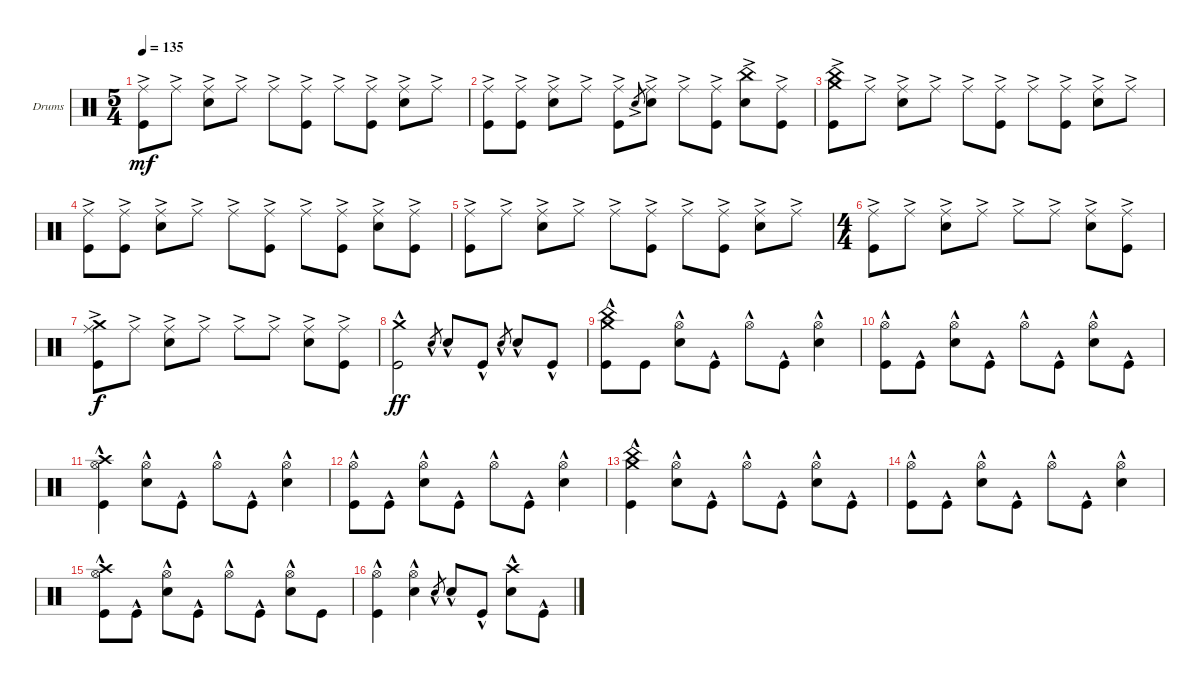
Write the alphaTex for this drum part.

\defaultSystemsLayout 4
\bracketExtendMode groupsimilarinstruments
\firstSystemTrackNameOrientation horizontal
\otherSystemsTrackNameOrientation horizontal
\track ("Drumkit" "Drums") {instrument percussion}
\staff {score}
\articulation defaults
\ts (5 4)
\tempo 135
\clef neutral
\ks c
("Kick (hit)"{ac} "Ride (middle)"{ac}).8{dy mf} "Ride (middle)"{ac}.8 ("Ride (middle)"{ac} "Snare (hit) 2"{ac}).8 "Ride (middle)"{ac}.8 "Ride (middle)"{ac}.8 ("Ride (middle)"{ac} "Kick (hit)"{ac}).8 "Ride (middle)"{ac}.8 ("Ride (middle)"{ac} "Kick (hit)"{ac}).8 ("Ride (middle)"{ac} "Snare (hit) 2"{ac}).8 "Ride (middle)"{ac}.8 |
("Kick (hit)"{ac} "Ride (middle)"{ac}).8 ("Ride (middle)"{ac} "Kick (hit)"{ac}).8 ("Ride (middle)"{ac} "Snare (hit) 2"{ac}).8 "Ride (middle)"{ac}.8 ("Ride (middle)"{ac} "Kick (hit)"{ac}).8 "Snare (hit) 2"{ac}.8{gr} ("Snare (hit) 2"{ac} "Ride (middle)"{ac}).8 "Ride (middle)"{ac}.8 ("Ride (middle)"{ac} "Kick (hit)"{ac}).8 ("Snare (hit) 2"{ac} "China (hit)"{ac}).8 ("Ride (middle)"{ac} "Kick (hit)"{ac}).8 |
("Kick (hit)"{ac} "Crash medium (hit)"{ac} "China (hit)"{ac}).8 "Ride (middle)"{ac}.8 ("Ride (middle)"{ac} "Snare (hit) 2"{ac}).8 "Ride (middle)"{ac}.8 "Ride (middle)"{ac}.8 ("Ride (middle)"{ac} "Kick (hit)"{ac}).8 "Ride (middle)"{ac}.8 ("Ride (middle)"{ac} "Kick (hit)"{ac}).8 ("Ride (middle)"{ac} "Snare (hit) 2"{ac}).8 "Ride (middle)"{ac}.8 |
("Kick (hit)"{ac} "Ride (middle)"{ac}).8 ("Ride (middle)"{ac} "Kick (hit)"{ac}).8 ("Ride (middle)"{ac} "Snare (hit) 2"{ac}).8 "Ride (middle)"{ac}.8 "Ride (middle)"{ac}.8 ("Ride (middle)"{ac} "Kick (hit)"{ac}).8 "Ride (middle)"{ac}.8 ("Ride (middle)"{ac} "Kick (hit)"{ac}).8 ("Ride (middle)"{ac} "Snare (hit) 2"{ac}).8 ("Ride (middle)"{ac} "Kick (hit)"{ac}).8 |
("Kick (hit)"{ac} "Ride (middle)"{ac}).8 "Ride (middle)"{ac}.8 ("Ride (middle)"{ac} "Snare (hit) 2"{ac}).8 "Ride (middle)"{ac}.8 "Ride (middle)"{ac}.8 ("Ride (middle)"{ac} "Kick (hit)"{ac}).8 "Ride (middle)"{ac}.8 ("Ride (middle)"{ac} "Kick (hit)"{ac}).8 ("Ride (middle)"{ac} "Snare (hit) 2"{ac}).8 "Ride (middle)"{ac}.8 |
\ts (4 4)
("Kick (hit)"{ac} "Ride (middle)"{ac}).8 "Ride (middle)"{ac}.8 ("Ride (middle)"{ac} "Snare (hit) 2"{ac}).8 "Ride (middle)"{ac}.8 "Ride (middle)"{ac}.8 "Ride (middle)"{ac}.8 ("Ride (middle)"{ac} "Snare (hit) 2"{ac}).8 ("Ride (middle)"{ac} "Kick (hit)"{ac}).8 |
("Kick (hit)"{ac} "Crash medium (hit)"{ac} "Ride (middle)"{ac}).8{dy f} "Ride (middle)"{ac}.8 ("Ride (middle)"{ac} "Snare (hit) 2"{ac}).8 "Ride (middle)"{ac}.8 "Ride (middle)"{ac}.8 "Ride (middle)"{ac}.8 ("Ride (middle)"{ac} "Snare (hit) 2"{ac}).8 ("Ride (middle)"{ac} "Kick (hit)"{ac}).8 |
("Kick (hit)"{hac} "Crash medium (hit)"{hac}).2{dy ff} "Snare (hit) 2"{hac}.8{gr} "Snare (hit) 2"{hac}.8 "Kick (hit)"{hac}.8 "Snare (hit) 2"{hac}.8{gr} "Snare (hit) 2"{hac}.8 "Kick (hit)"{hac}.8 |
("Kick (hit)"{hac} "Crash medium (hit)"{hac} "China (hit)"{hac}).8 "Kick (hit)".8 ("Snare (hit) 2"{hac} "Hi-Hat (open)"{hac}).8 "Kick (hit)"{hac}.8 "Hi-Hat (open)"{hac}.8 "Kick (hit)"{hac}.8 ("Snare (hit) 2"{hac} "Hi-Hat (open)"{hac}).4 |
("Kick (hit)"{hac} "Hi-Hat (open)"{hac}).8 "Kick (hit)"{hac}.8 ("Snare (hit) 2"{hac} "Hi-Hat (open)"{hac}).8 "Kick (hit)"{hac}.8 "Hi-Hat (open)"{hac}.8 "Kick (hit)"{hac}.8 ("Snare (hit) 2"{hac} "Hi-Hat (open)"{hac}).8 "Kick (hit)"{hac}.8 |
("Kick (hit)"{hac} "Hi-Hat (open)"{hac} "Crash high (hit)").4 ("Snare (hit) 2"{hac} "Hi-Hat (open)"{hac}).8 "Kick (hit)"{hac}.8 "Hi-Hat (open)"{hac}.8 "Kick (hit)"{hac}.8 ("Snare (hit) 2"{hac} "Hi-Hat (open)"{hac}).4 |
("Kick (hit)"{hac} "Hi-Hat (open)"{hac}).8 "Kick (hit)"{hac}.8 ("Snare (hit) 2"{hac} "Hi-Hat (open)"{hac}).8 "Kick (hit)"{hac}.8 "Hi-Hat (open)"{hac}.8 "Kick (hit)"{hac}.8 ("Snare (hit) 2"{hac} "Hi-Hat (open)"{hac}).4 |
("Kick (hit)"{hac} "Crash medium (hit)"{hac} "China (hit)"{hac}).4 ("Snare (hit) 2"{hac} "Hi-Hat (open)"{hac}).8 "Kick (hit)"{hac}.8 "Hi-Hat (open)"{hac}.8 "Kick (hit)"{hac}.8 ("Snare (hit) 2"{hac} "Hi-Hat (open)"{hac}).8 "Kick (hit)"{hac}.8 |
("Kick (hit)"{hac} "Hi-Hat (open)"{hac}).8 "Kick (hit)"{hac}.8 ("Snare (hit) 2"{hac} "Hi-Hat (open)"{hac}).8 "Kick (hit)"{hac}.8 "Hi-Hat (open)"{hac}.8 "Kick (hit)"{hac}.8 ("Snare (hit) 2"{hac} "Hi-Hat (open)"{hac}).4 |
("Kick (hit)"{hac} "Hi-Hat (open)"{hac} "Crash high (hit)").8 "Kick (hit)"{hac}.8 ("Snare (hit) 2"{hac} "Hi-Hat (open)"{hac}).8 "Kick (hit)"{hac}.8 "Hi-Hat (open)"{hac}.8 "Kick (hit)"{hac}.8 ("Snare (hit) 2"{hac} "Hi-Hat (open)"{hac}).8 "Kick (hit)".8 |
("Kick (hit)"{hac} "Hi-Hat (open)"{hac}).4 ("Snare (hit) 2"{hac} "Hi-Hat (open)"{hac}).4 "Snare (hit) 2"{hac}.8{gr} "Snare (hit) 2"{hac}.8 "Kick (hit)"{hac}.8 ("Snare (hit) 2"{hac} "Crash high (hit)"{hac}).8 "Kick (hit)"{hac}.8
